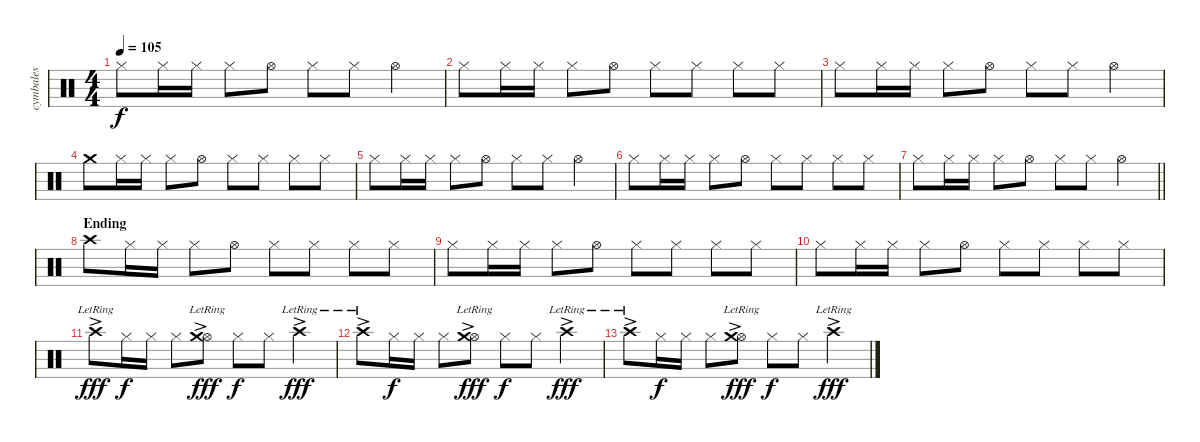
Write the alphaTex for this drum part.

\track ("cymbales" "cymbales") {instrument percussion}
\staff {score}
\articulation defaults
\ts (4 4)
\tempo 105
\clef neutral
\ks c "Hi-Hat (closed)".8{dy f} "Hi-Hat (closed)".16 "Hi-Hat (closed)".16 "Hi-Hat (closed)".8 "Hi-Hat (open)".8 "Hi-Hat (closed)".8 "Hi-Hat (closed)".8 "Hi-Hat (open)".4
|
"Hi-Hat (closed)".8 "Hi-Hat (closed)".16 "Hi-Hat (closed)".16 "Hi-Hat (closed)".8 "Hi-Hat (open)".8 "Hi-Hat (closed)".8 "Hi-Hat (closed)".8 "Hi-Hat (closed)".8 "Hi-Hat (closed)".8 |
"Hi-Hat (closed)".8 "Hi-Hat (closed)".16 "Hi-Hat (closed)".16 "Hi-Hat (closed)".8 "Hi-Hat (open)".8 "Hi-Hat (closed)".8 "Hi-Hat (closed)".8 "Hi-Hat (open)".4 |
"Crash medium (hit)".8 "Hi-Hat (closed)".16 "Hi-Hat (closed)".16 "Hi-Hat (closed)".8 "Hi-Hat (open)".8 "Hi-Hat (closed)".8 "Hi-Hat (closed)".8 "Hi-Hat (closed)".8 "Hi-Hat (closed)".8 |
"Hi-Hat (closed)".8 "Hi-Hat (closed)".16 "Hi-Hat (closed)".16 "Hi-Hat (closed)".8 "Hi-Hat (open)".8 "Hi-Hat (closed)".8 "Hi-Hat (closed)".8 "Hi-Hat (open)".4 |
"Hi-Hat (closed)".8 "Hi-Hat (closed)".16 "Hi-Hat (closed)".16 "Hi-Hat (closed)".8 "Hi-Hat (open)".8 "Hi-Hat (closed)".8 "Hi-Hat (closed)".8 "Hi-Hat (closed)".8 "Hi-Hat (closed)".8 |
\barLineRight lightlight "Hi-Hat (closed)".8 "Hi-Hat (closed)".16 "Hi-Hat (closed)".16 "Hi-Hat (closed)".8 "Hi-Hat (open)".8 "Hi-Hat (closed)".8 "Hi-Hat (closed)".8 "Hi-Hat (open)".4
|
\section ("" "Ending")
"Crash high (hit)".8 "Hi-Hat (closed)".16 "Hi-Hat (closed)".16 "Hi-Hat (closed)".8 "Hi-Hat (open)".8 "Hi-Hat (closed)".8 "Hi-Hat (closed)".8 "Hi-Hat (closed)".8 "Hi-Hat (closed)".8 |
"Hi-Hat (closed)".8 "Hi-Hat (closed)".16 "Hi-Hat (closed)".16 "Hi-Hat (closed)".8 "Hi-Hat (open)".8 "Hi-Hat (closed)".8 "Hi-Hat (closed)".8 "Hi-Hat (closed)".8 "Hi-Hat (closed)".8 |
"Hi-Hat (closed)".8 "Hi-Hat (closed)".16 "Hi-Hat (closed)".16 "Hi-Hat (closed)".8 "Hi-Hat (open)".8 "Hi-Hat (closed)".8 "Hi-Hat (closed)".8 "Hi-Hat (closed)".8 "Hi-Hat (closed)".8 |
"Crash high (hit)"{ac lr}.8{dy fff} "Hi-Hat (closed)".16{dy f} "Hi-Hat (closed)".16 "Hi-Hat (closed)".8 ("Hi-Hat (open)" "Crash medium (hit)"{ac lr}).8{dy fff} "Hi-Hat (closed)".8{dy f} "Hi-Hat (closed)".8 "Crash high (hit)"{ac lr}.4{dy fff} |
"Crash high (hit)"{ac lr}.8 "Hi-Hat (closed)".16{dy f} "Hi-Hat (closed)".16 "Hi-Hat (closed)".8 ("Hi-Hat (open)" "Crash medium (hit)"{ac lr}).8{dy fff} "Hi-Hat (closed)".8{dy f} "Hi-Hat (closed)".8 "Crash high (hit)"{ac lr}.4{dy fff} |
"Crash high (hit)"{ac lr}.8 "Hi-Hat (closed)".16{dy f} "Hi-Hat (closed)".16 "Hi-Hat (closed)".8 ("Hi-Hat (open)" "Crash medium (hit)"{ac lr}).8{dy fff} "Hi-Hat (closed)".8{dy f} "Hi-Hat (closed)".8 "Crash high (hit)"{ac lr}.4{dy fff}
